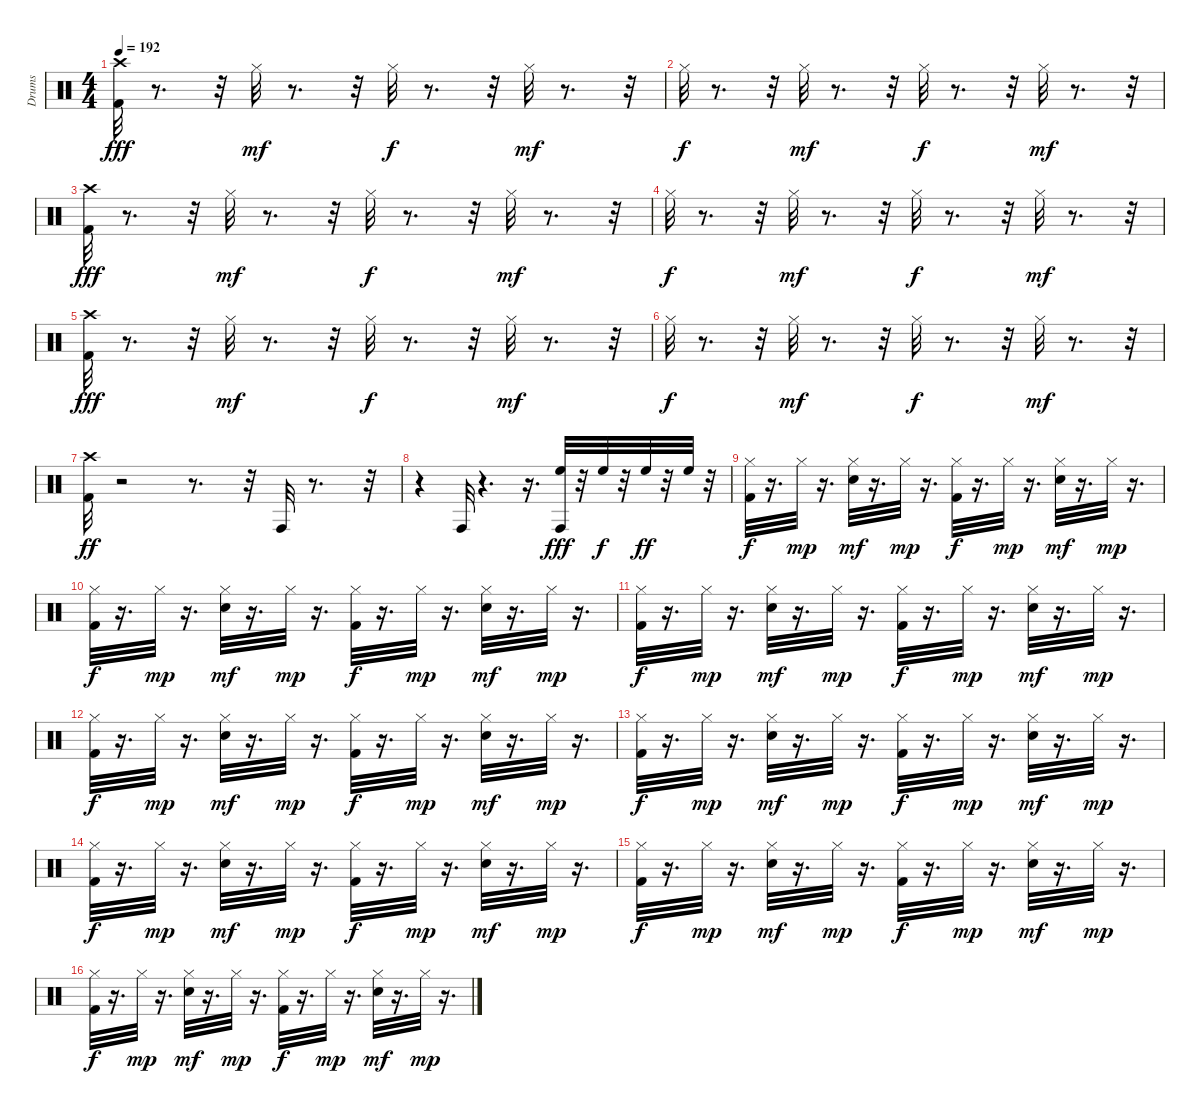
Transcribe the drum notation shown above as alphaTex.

\track ("Drums" "Drums") {instrument percussion}
\staff {score}
\articulation defaults
\ts (4 4)
\tempo 192
\clef neutral
\ks c
("Crash high (hit)" "Kick (hit) 2").32{dy fff} r.8{d} r.32 "Hi-Hat (closed)".32{dy mf} r.8{d} r.32 "Hi-Hat (closed)".32{dy f} r.8{d} r.32 "Hi-Hat (closed)".32{dy mf} r.8{d} r.32 |
"Hi-Hat (closed)".32{dy f} r.8{d} r.32 "Hi-Hat (closed)".32{dy mf} r.8{d} r.32 "Hi-Hat (closed)".32{dy f} r.8{d} r.32 "Hi-Hat (closed)".32{dy mf} r.8{d} r.32 |
("Crash high (hit)" "Kick (hit) 2").32{dy fff} r.8{d} r.32 "Hi-Hat (closed)".32{dy mf} r.8{d} r.32 "Hi-Hat (closed)".32{dy f} r.8{d} r.32 "Hi-Hat (closed)".32{dy mf} r.8{d} r.32 |
"Hi-Hat (closed)".32{dy f} r.8{d} r.32 "Hi-Hat (closed)".32{dy mf} r.8{d} r.32 "Hi-Hat (closed)".32{dy f} r.8{d} r.32 "Hi-Hat (closed)".32{dy mf} r.8{d} r.32 |
("Crash high (hit)" "Kick (hit) 2").32{dy fff} r.8{d} r.32 "Hi-Hat (closed)".32{dy mf} r.8{d} r.32 "Hi-Hat (closed)".32{dy f} r.8{d} r.32 "Hi-Hat (closed)".32{dy mf} r.8{d} r.32 |
"Hi-Hat (closed)".32{dy f} r.8{d} r.32 "Hi-Hat (closed)".32{dy mf} r.8{d} r.32 "Hi-Hat (closed)".32{dy f} r.8{d} r.32 "Hi-Hat (closed)".32{dy mf} r.8{d} r.32 |
("Kick (hit) 2" "Crash high (hit)").32{dy ff} r.2 r.8{d} r.32 "Conga high (hit)".32 r.8{d} r.32 |
r.4 "Conga high (hit)".32 r.4{d} r.16{d} ("Conga high (hit)" "High Floor Tom (hit)").32{dy fff} r.32 "High Floor Tom (hit)".32{dy f} r.32 "High Floor Tom (hit)".32{dy ff} r.32 "High Floor Tom (hit)".32 r.32 |
("Kick (hit) 2" "Hi-Hat (closed)").32{dy f} r.16{d} "Hi-Hat (closed)".32{dy mp} r.16{d} ("Snare (hit) 2" "Hi-Hat (closed)").32{dy mf} r.16{d} "Hi-Hat (closed)".32{dy mp} r.16{d} ("Kick (hit) 2" "Hi-Hat (closed)").32{dy f} r.16{d} "Hi-Hat (closed)".32{dy mp} r.16{d} ("Snare (hit) 2" "Hi-Hat (closed)").32{dy mf} r.16{d} "Hi-Hat (closed)".32{dy mp} r.16{d} |
("Kick (hit) 2" "Hi-Hat (closed)").32{dy f} r.16{d} "Hi-Hat (closed)".32{dy mp} r.16{d} ("Snare (hit) 2" "Hi-Hat (closed)").32{dy mf} r.16{d} "Hi-Hat (closed)".32{dy mp} r.16{d} ("Kick (hit) 2" "Hi-Hat (closed)").32{dy f} r.16{d} "Hi-Hat (closed)".32{dy mp} r.16{d} ("Snare (hit) 2" "Hi-Hat (closed)").32{dy mf} r.16{d} "Hi-Hat (closed)".32{dy mp} r.16{d} |
("Kick (hit) 2" "Hi-Hat (closed)").32{dy f} r.16{d} "Hi-Hat (closed)".32{dy mp} r.16{d} ("Snare (hit) 2" "Hi-Hat (closed)").32{dy mf} r.16{d} "Hi-Hat (closed)".32{dy mp} r.16{d} ("Kick (hit) 2" "Hi-Hat (closed)").32{dy f} r.16{d} "Hi-Hat (closed)".32{dy mp} r.16{d} ("Snare (hit) 2" "Hi-Hat (closed)").32{dy mf} r.16{d} "Hi-Hat (closed)".32{dy mp} r.16{d} |
("Kick (hit) 2" "Hi-Hat (closed)").32{dy f} r.16{d} "Hi-Hat (closed)".32{dy mp} r.16{d} ("Snare (hit) 2" "Hi-Hat (closed)").32{dy mf} r.16{d} "Hi-Hat (closed)".32{dy mp} r.16{d} ("Kick (hit) 2" "Hi-Hat (closed)").32{dy f} r.16{d} "Hi-Hat (closed)".32{dy mp} r.16{d} ("Snare (hit) 2" "Hi-Hat (closed)").32{dy mf} r.16{d} "Hi-Hat (closed)".32{dy mp} r.16{d} |
("Kick (hit) 2" "Hi-Hat (closed)").32{dy f} r.16{d} "Hi-Hat (closed)".32{dy mp} r.16{d} ("Snare (hit) 2" "Hi-Hat (closed)").32{dy mf} r.16{d} "Hi-Hat (closed)".32{dy mp} r.16{d} ("Kick (hit) 2" "Hi-Hat (closed)").32{dy f} r.16{d} "Hi-Hat (closed)".32{dy mp} r.16{d} ("Snare (hit) 2" "Hi-Hat (closed)").32{dy mf} r.16{d} "Hi-Hat (closed)".32{dy mp} r.16{d} |
("Kick (hit) 2" "Hi-Hat (closed)").32{dy f} r.16{d} "Hi-Hat (closed)".32{dy mp} r.16{d} ("Snare (hit) 2" "Hi-Hat (closed)").32{dy mf} r.16{d} "Hi-Hat (closed)".32{dy mp} r.16{d} ("Kick (hit) 2" "Hi-Hat (closed)").32{dy f} r.16{d} "Hi-Hat (closed)".32{dy mp} r.16{d} ("Snare (hit) 2" "Hi-Hat (closed)").32{dy mf} r.16{d} "Hi-Hat (closed)".32{dy mp} r.16{d} |
("Kick (hit) 2" "Hi-Hat (closed)").32{dy f} r.16{d} "Hi-Hat (closed)".32{dy mp} r.16{d} ("Snare (hit) 2" "Hi-Hat (closed)").32{dy mf} r.16{d} "Hi-Hat (closed)".32{dy mp} r.16{d} ("Kick (hit) 2" "Hi-Hat (closed)").32{dy f} r.16{d} "Hi-Hat (closed)".32{dy mp} r.16{d} ("Snare (hit) 2" "Hi-Hat (closed)").32{dy mf} r.16{d} "Hi-Hat (closed)".32{dy mp} r.16{d} |
("Kick (hit) 2" "Hi-Hat (closed)").32{dy f} r.16{d} "Hi-Hat (closed)".32{dy mp} r.16{d} ("Snare (hit) 2" "Hi-Hat (closed)").32{dy mf} r.16{d} "Hi-Hat (closed)".32{dy mp} r.16{d} ("Kick (hit) 2" "Hi-Hat (closed)").32{dy f} r.16{d} "Hi-Hat (closed)".32{dy mp} r.16{d} ("Snare (hit) 2" "Hi-Hat (closed)").32{dy mf} r.16{d} "Hi-Hat (closed)".32{dy mp} r.16{d}
